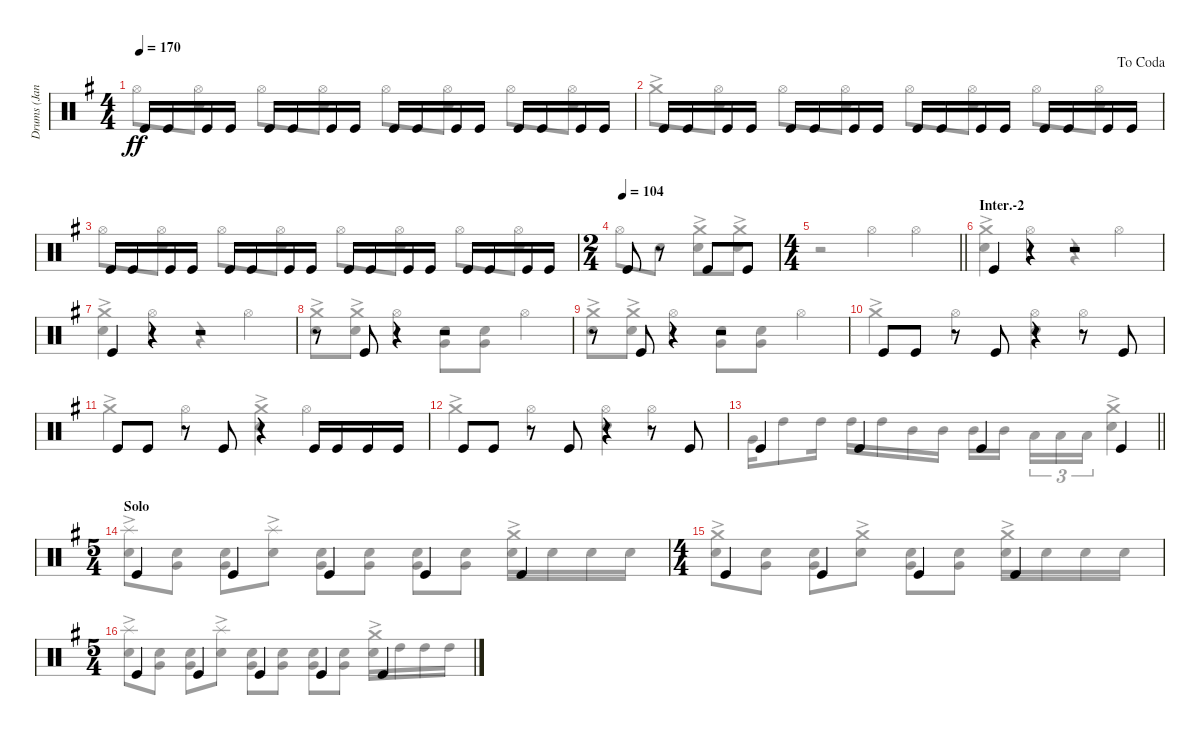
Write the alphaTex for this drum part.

\track ("Drums (Jane)" "Drums (Jan") {instrument percussion}
\staff {score}
\articulation defaults
\voice
\ts (4 4)
\tempo 170
\clef neutral
\ks eminor "Kick (hit)".16{dy ff} "Kick (hit)".16 "Kick (hit)".16 "Kick (hit)".16 "Kick (hit)".16 "Kick (hit)".16 "Kick (hit)".16 "Kick (hit)".16 "Kick (hit)".16 "Kick (hit)".16 "Kick (hit)".16 "Kick (hit)".16 "Kick (hit)".16 "Kick (hit)".16 "Kick (hit)".16 "Kick (hit)".16
|
\jump dacoda "Kick (hit)".16 "Kick (hit)".16 "Kick (hit)".16 "Kick (hit)".16 "Kick (hit)".16 "Kick (hit)".16 "Kick (hit)".16 "Kick (hit)".16 "Kick (hit)".16 "Kick (hit)".16 "Kick (hit)".16 "Kick (hit)".16 "Kick (hit)".16 "Kick (hit)".16 "Kick (hit)".16 "Kick (hit)".16
|
"Kick (hit)".16 "Kick (hit)".16 "Kick (hit)".16 "Kick (hit)".16 "Kick (hit)".16 "Kick (hit)".16 "Kick (hit)".16 "Kick (hit)".16 "Kick (hit)".16 "Kick (hit)".16 "Kick (hit)".16 "Kick (hit)".16 "Kick (hit)".16 "Kick (hit)".16 "Kick (hit)".16 "Kick (hit)".16 |
\ts (2 4)
\tempo (104)
"Kick (hit)".8 r.8 "Kick (hit)".8 "Kick (hit)".8 |
\ts (4 4)
\barLineRight lightlight
|
\section ("" "Inter.-2")
"Kick (hit)".4 r.4 r.2 |
"Kick (hit)".4 r.4 r.2 |
r.8 "Kick (hit)".8 r.4 r.2 |
r.8 "Kick (hit)".8 r.4 r.2 |
"Kick (hit)".8 "Kick (hit)".8 r.8 "Kick (hit)".8 r.4 r.8 "Kick (hit)".8 |
"Kick (hit)".8 "Kick (hit)".8 r.8 "Kick (hit)".8 r.4 "Kick (hit)".16 "Kick (hit)".16 "Kick (hit)".16 "Kick (hit)".16 |
"Kick (hit)".8 "Kick (hit)".8 r.8 "Kick (hit)".8 r.4 r.8 "Kick (hit)".8 |
\barLineRight lightlight "Kick (hit)".4 "Kick (hit)".4 "Kick (hit)".4 "Kick (hit)".4
|
\ts (5 4)
\section ("" "Solo")
"Kick (hit)".4 "Kick (hit)".4 "Kick (hit)".4 "Kick (hit)".4 "Kick (hit)".4 |
\ts (4 4)
"Kick (hit)".4 "Kick (hit)".4 "Kick (hit)".4 "Kick (hit)".4 |
\ts (5 4)
"Kick (hit)".4 "Kick (hit)".4 "Kick (hit)".4 "Kick (hit)".4 "Kick (hit)".4
\voice
\clef neutral
\ottava regular
\simile none
\ks eminor "Hi-Hat (open)".8{dy ff}
("Hi-Hat (open)" "Snare (hit) 2").8 "Hi-Hat (open)".8 ("Hi-Hat (open)" "Snare (hit) 2").8 "Hi-Hat (open)".8 ("Hi-Hat (open)" "Snare (hit) 2").8 "Hi-Hat (open)".8 ("Hi-Hat (open)" "Snare (hit) 2").8 |
"Crash medium (hit)"{ac}.8 ("Hi-Hat (open)" "Snare (hit) 2").8 "Hi-Hat (open)".8 ("Hi-Hat (open)" "Snare (hit) 2").8 "Hi-Hat (open)".8 ("Hi-Hat (open)" "Snare (hit) 2").8 "Hi-Hat (open)".8 ("Hi-Hat (open)" "Snare (hit) 2").8 |
"Hi-Hat (open)".8 ("Hi-Hat (open)" "Snare (hit) 2").8 "Hi-Hat (open)".8 ("Hi-Hat (open)" "Snare (hit) 2").8 "Hi-Hat (open)".8 ("Hi-Hat (open)" "Snare (hit) 2").8 "Hi-Hat (open)".8 ("Hi-Hat (open)" "Snare (hit) 2").8 |
"Hi-Hat (open)".8 "Snare (hit) 2".8 ("Snare (hit) 2" "Crash medium (hit)"{ac}).8 ("Snare (hit) 2" "Crash medium (hit)"{ac}).8 |
\barLineRight lightlight
r.2 "Hi-Hat (open)".4 "Hi-Hat (open)".4 |
("Crash medium (hit)"{ac} "Snare (hit) 2").4 "Hi-Hat (open)".4 r.4 "Hi-Hat (open)".4 |
("Crash medium (hit)"{ac} "Snare (hit) 2").4 "Hi-Hat (open)".4 r.4 "Hi-Hat (open)".4 |
("Snare (hit) 2" "Crash medium (hit)"{ac}).8 ("Snare (hit) 2" "Crash medium (hit)"{ac}).8 "Hi-Hat (open)".4 ("Snare (hit) 2" "Very Low Tom (hit)").8 ("Very Low Tom (hit)" "Snare (hit) 2").8 "Hi-Hat (open)".4 |
("Snare (hit) 2" "Crash medium (hit)"{ac}).8 ("Snare (hit) 2" "Crash medium (hit)"{ac}).8 "Hi-Hat (open)".4 ("Snare (hit) 2" "Very Low Tom (hit)").8 ("Very Low Tom (hit)" "Snare (hit) 2").8 "Hi-Hat (open)".4 |
"Crash medium (hit)"{ac}.4 "Hi-Hat (open)".4 ("Hi-Hat (open)" "Snare (hit) 2").4 "Hi-Hat (open)".4 |
"Crash medium (hit)"{ac}.4 "Hi-Hat (open)".4 ("Snare (hit) 2" "Crash medium (hit)"{ac}).4 "Hi-Hat (open)".4 |
"Crash medium (hit)"{ac}.4 "Hi-Hat (open)".4 ("Hi-Hat (open)" "Snare (hit) 2").4 "Hi-Hat (open)".4 |
\barLineRight lightlight "Very Low Tom (hit)".16 "High Tom (hit)".8 "High Tom (hit)".16 "High Tom (hit)".16 "High Tom (hit)".16 "Mid Tom (hit)".16 "Mid Tom (hit)".16 "Mid Tom (hit)".16 "Mid Tom (hit)".16{beam splitsecondary} "Low Tom (hit)".16{tu (3 2)} "Low Tom (hit)".16{tu (3 2)} "Low Tom (hit)".16{tu (3 2)}
("Snare (hit) 2" "Crash medium (hit)"{ac}).4 |
("Snare (hit) 2" "Splash (hit)"{ac}).8 ("Snare (hit) 2" "Very Low Tom (hit)").8 ("Snare (hit) 2" "Very Low Tom (hit)").8 ("Snare (hit) 2" "Splash (hit)"{ac}).8 ("Snare (hit) 2" "Very Low Tom (hit)").8 ("Snare (hit) 2" "Very Low Tom (hit)").8 ("Snare (hit) 2" "Very Low Tom (hit)").8 ("Snare (hit) 2" "Very Low Tom (hit)").8 ("Snare (hit) 2" "Crash medium (hit)"{ac}).16 "Snare (hit) 2".16 "Snare (hit) 2".16 "Snare (hit) 2".16 |
("Snare (hit) 2" "Crash medium (hit)"{ac}).8 ("Snare (hit) 2" "Very Low Tom (hit)").8 ("Snare (hit) 2" "Very Low Tom (hit)").8 ("Snare (hit) 2" "Crash medium (hit)"{ac}).8 ("Snare (hit) 2" "Very Low Tom (hit)").8 ("Snare (hit) 2" "Very Low Tom (hit)").8 ("Snare (hit) 2" "Crash medium (hit)"{ac}).16 "Snare (hit) 2".16 "Snare (hit) 2".16 "Snare (hit) 2".16 |
("Snare (hit) 2" "Splash (hit)"{ac}).8 ("Snare (hit) 2" "Very Low Tom (hit)").8 ("Snare (hit) 2" "Very Low Tom (hit)").8 ("Snare (hit) 2" "Splash (hit)"{ac}).8 ("Snare (hit) 2" "Very Low Tom (hit)").8 ("Snare (hit) 2" "Very Low Tom (hit)").8 ("Snare (hit) 2" "Very Low Tom (hit)").8 ("Snare (hit) 2" "Very Low Tom (hit)").8 ("Snare (hit) 2" "Crash medium (hit)"{ac}).16 "High Tom (hit)".16 "High Tom (hit)".16 "High Tom (hit)".16
